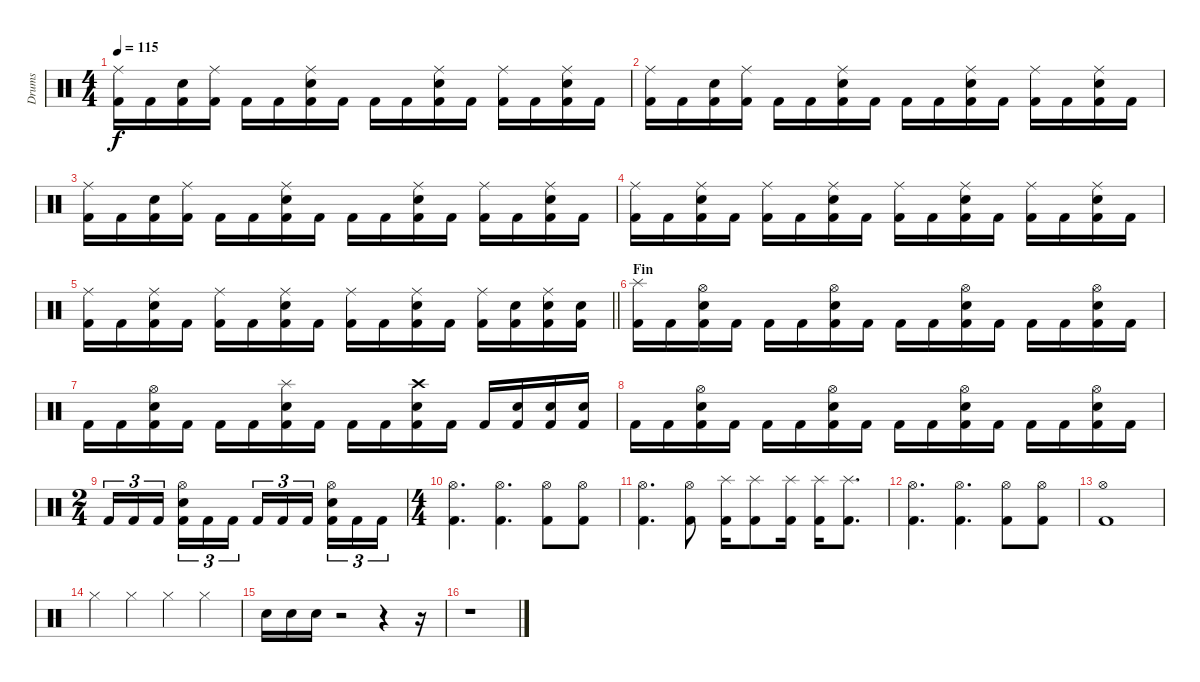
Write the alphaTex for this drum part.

\track ("Drums" "Drums") {instrument percussion}
\staff {score}
\articulation defaults
\ts (4 4)
\tempo 115
\clef neutral
\ks c
("Ride (middle)" "Kick (hit) 2").16{dy f} "Kick (hit) 2".16 ("Electric Snare (hit)" "Kick (hit) 2").16 ("Ride (middle)" "Kick (hit) 2").16 "Kick (hit) 2".16 "Kick (hit) 2".16 ("Ride (middle)" "Electric Snare (hit)" "Kick (hit) 2").16 "Kick (hit) 2".16 "Kick (hit) 2".16 "Kick (hit) 2".16 ("Ride (middle)" "Electric Snare (hit)" "Kick (hit) 2").16 "Kick (hit) 2".16 ("Ride (middle)" "Kick (hit) 2").16 "Kick (hit) 2".16 ("Ride (middle)" "Electric Snare (hit)" "Kick (hit) 2").16 "Kick (hit) 2".16 |
("Ride (middle)" "Kick (hit) 2").16 "Kick (hit) 2".16 ("Electric Snare (hit)" "Kick (hit) 2").16 ("Ride (middle)" "Kick (hit) 2").16 "Kick (hit) 2".16 "Kick (hit) 2".16 ("Ride (middle)" "Electric Snare (hit)" "Kick (hit) 2").16 "Kick (hit) 2".16 "Kick (hit) 2".16 "Kick (hit) 2".16 ("Ride (middle)" "Electric Snare (hit)" "Kick (hit) 2").16 "Kick (hit) 2".16 ("Ride (middle)" "Kick (hit) 2").16 "Kick (hit) 2".16 ("Ride (middle)" "Electric Snare (hit)" "Kick (hit) 2").16 "Kick (hit) 2".16 |
("Ride (middle)" "Kick (hit) 2").16 "Kick (hit) 2".16 ("Electric Snare (hit)" "Kick (hit) 2").16 ("Ride (middle)" "Kick (hit) 2").16 "Kick (hit) 2".16 "Kick (hit) 2".16 ("Ride (middle)" "Electric Snare (hit)" "Kick (hit) 2").16 "Kick (hit) 2".16 "Kick (hit) 2".16 "Kick (hit) 2".16 ("Ride (middle)" "Electric Snare (hit)" "Kick (hit) 2").16 "Kick (hit) 2".16 ("Ride (middle)" "Kick (hit) 2").16 "Kick (hit) 2".16 ("Ride (middle)" "Electric Snare (hit)" "Kick (hit) 2").16 "Kick (hit) 2".16 |
("Ride (middle)" "Kick (hit) 2").16 "Kick (hit) 2".16 ("Ride (middle)" "Electric Snare (hit)" "Kick (hit) 2").16 "Kick (hit) 2".16 ("Ride (middle)" "Kick (hit) 2").16 "Kick (hit) 2".16 ("Ride (middle)" "Electric Snare (hit)" "Kick (hit) 2").16 "Kick (hit) 2".16 ("Ride (middle)" "Kick (hit) 2").16 "Kick (hit) 2".16 ("Ride (middle)" "Electric Snare (hit)" "Kick (hit) 2").16 "Kick (hit) 2".16 ("Ride (middle)" "Kick (hit) 2").16 "Kick (hit) 2".16 ("Ride (middle)" "Electric Snare (hit)" "Kick (hit) 2").16 "Kick (hit) 2".16 |
\barLineRight lightlight
("Ride (middle)" "Kick (hit) 2").16 "Kick (hit) 2".16 ("Ride (middle)" "Electric Snare (hit)" "Kick (hit) 2").16 "Kick (hit) 2".16 ("Ride (middle)" "Kick (hit) 2").16 "Kick (hit) 2".16 ("Ride (middle)" "Electric Snare (hit)" "Kick (hit) 2").16 "Kick (hit) 2".16 ("Ride (middle)" "Kick (hit) 2").16 "Kick (hit) 2".16 ("Ride (middle)" "Electric Snare (hit)" "Kick (hit) 2").16 "Kick (hit) 2".16 ("Ride (middle)" "Kick (hit) 2").16 ("Electric Snare (hit)" "Kick (hit) 2").16 ("Ride (middle)" "Electric Snare (hit)" "Kick (hit) 2").16 ("Electric Snare (hit)" "Kick (hit) 2").16 |
\section ("" "Fin")
("Splash (hit)" "Kick (hit) 2").16 "Kick (hit) 2".16 ("Hi-Hat (open)" "Electric Snare (hit)" "Kick (hit) 2").16 "Kick (hit) 2".16 "Kick (hit) 2".16 "Kick (hit) 2".16 ("Hi-Hat (open)" "Electric Snare (hit)" "Kick (hit) 2").16 "Kick (hit) 2".16 "Kick (hit) 2".16 "Kick (hit) 2".16 ("Hi-Hat (open)" "Electric Snare (hit)" "Kick (hit) 2").16 "Kick (hit) 2".16 "Kick (hit) 2".16 "Kick (hit) 2".16 ("Hi-Hat (open)" "Electric Snare (hit)" "Kick (hit) 2").16 "Kick (hit) 2".16 |
"Kick (hit) 2".16 "Kick (hit) 2".16 ("Hi-Hat (open)" "Electric Snare (hit)" "Kick (hit) 2").16 "Kick (hit) 2".16 "Kick (hit) 2".16 "Kick (hit) 2".16 ("Splash (hit)" "Electric Snare (hit)" "Kick (hit) 2").16 "Kick (hit) 2".16 "Kick (hit) 2".16 "Kick (hit) 2".16 ("Crash high (hit)" "Electric Snare (hit)" "Kick (hit) 2").16 "Kick (hit) 2".16 "Kick (hit) 2".16 ("Electric Snare (hit)" "Kick (hit) 2").16 ("Electric Snare (hit)" "Kick (hit) 2").16 ("Electric Snare (hit)" "Kick (hit) 2").16 |
"Kick (hit) 2".16 "Kick (hit) 2".16 ("Hi-Hat (open)" "Electric Snare (hit)" "Kick (hit) 2").16 "Kick (hit) 2".16 "Kick (hit) 2".16 "Kick (hit) 2".16 ("Hi-Hat (open)" "Electric Snare (hit)" "Kick (hit) 2").16 "Kick (hit) 2".16 "Kick (hit) 2".16 "Kick (hit) 2".16 ("Hi-Hat (open)" "Electric Snare (hit)" "Kick (hit) 2").16 "Kick (hit) 2".16 "Kick (hit) 2".16 "Kick (hit) 2".16 ("Hi-Hat (open)" "Electric Snare (hit)" "Kick (hit) 2").16 "Kick (hit) 2".16 |
\ts (2 4)
"Kick (hit) 2".16{tu (3 2)} "Kick (hit) 2".16{tu (3 2)} "Kick (hit) 2".16{tu (3 2) beam splitsecondary} ("Hi-Hat (open)" "Electric Snare (hit)" "Kick (hit) 2").16{tu (3 2)} "Kick (hit) 2".16{tu (3 2)} "Kick (hit) 2".16{tu (3 2)} "Kick (hit) 2".16{tu (3 2)} "Kick (hit) 2".16{tu (3 2)} "Kick (hit) 2".16{tu (3 2) beam splitsecondary} ("Hi-Hat (open)" "Electric Snare (hit)" "Kick (hit) 2").16{tu (3 2)} "Kick (hit) 2".16{tu (3 2)} "Kick (hit) 2".16{tu (3 2)} |
\ts (4 4)
("Hi-Hat (open)" "Kick (hit) 2").4{d} ("Hi-Hat (open)" "Kick (hit) 2").4{d} ("Hi-Hat (open)" "Kick (hit) 2").8 ("Hi-Hat (open)" "Kick (hit) 2").8 |
("Hi-Hat (open)" "Kick (hit) 2").4{d} ("Hi-Hat (open)" "Kick (hit) 2").8 ("Splash (hit)" "Kick (hit) 2").16 ("Splash (hit)" "Kick (hit) 2").8 ("Splash (hit)" "Kick (hit) 2").16 ("Splash (hit)" "Kick (hit) 2").16 ("Splash (hit)" "Kick (hit) 2").8{d} |
("Hi-Hat (open)" "Kick (hit) 2").4{d} ("Hi-Hat (open)" "Kick (hit) 2").4{d} ("Hi-Hat (open)" "Kick (hit) 2").8 ("Hi-Hat (open)" "Kick (hit) 2").8 |
("Hi-Hat (open)" "Kick (hit) 2").1 |
"Hi-Hat (closed)".4 "Hi-Hat (closed)".4 "Hi-Hat (closed)".4 "Hi-Hat (closed)".4 |
"Electric Snare (hit)".16 "Electric Snare (hit)".16 "Electric Snare (hit)".16 r.2 r.4 r.16 |
r.1
